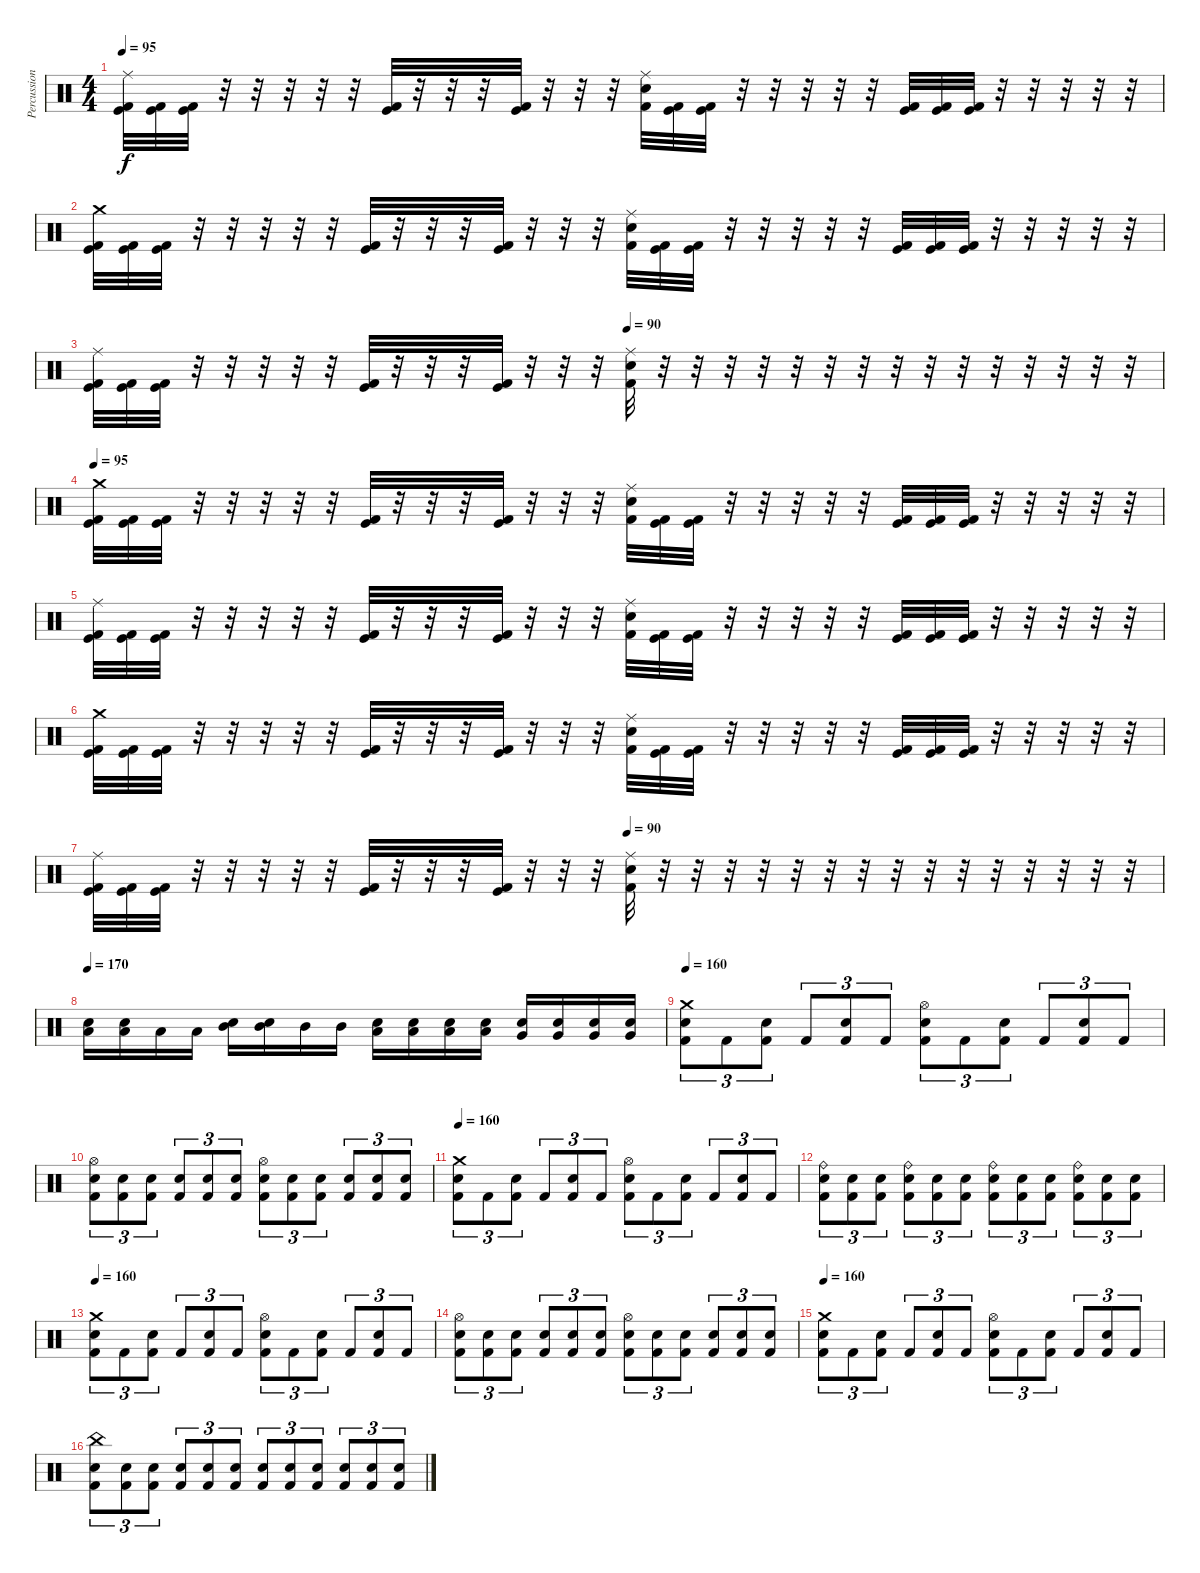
\track ("Percussion" "Percussion") {instrument percussion}
\staff {score}
\articulation defaults
\ts (4 4)
\tempo 95
\clef neutral
\ks c
("Ride (middle)" "Kick (hit)" "Kick (hit) 2").32{dy f} ("Kick (hit)" "Kick (hit) 2").32 ("Kick (hit)" "Kick (hit) 2").32 r.32 r.32 r.32 r.32 r.32 ("Kick (hit)" "Kick (hit) 2").32 r.32 r.32 r.32 ("Kick (hit)" "Kick (hit) 2").32 r.32 r.32 r.32 ("Ride (middle)" "Electric Snare (hit)" "Kick (hit) 2").32 ("Kick (hit)" "Kick (hit) 2").32 ("Kick (hit)" "Kick (hit) 2").32 r.32 r.32 r.32 r.32 r.32 ("Kick (hit)" "Kick (hit) 2").32 ("Kick (hit)" "Kick (hit) 2").32 ("Kick (hit)" "Kick (hit) 2").32 r.32 r.32 r.32 r.32 r.32 |
("Crash medium (hit)" "Kick (hit)" "Kick (hit) 2").32 ("Kick (hit)" "Kick (hit) 2").32 ("Kick (hit)" "Kick (hit) 2").32 r.32 r.32 r.32 r.32 r.32 ("Kick (hit)" "Kick (hit) 2").32 r.32 r.32 r.32 ("Kick (hit)" "Kick (hit) 2").32 r.32 r.32 r.32 ("Ride (middle)" "Electric Snare (hit)" "Kick (hit) 2").32 ("Kick (hit)" "Kick (hit) 2").32 ("Kick (hit)" "Kick (hit) 2").32 r.32 r.32 r.32 r.32 r.32 ("Kick (hit)" "Kick (hit) 2").32 ("Kick (hit)" "Kick (hit) 2").32 ("Kick (hit)" "Kick (hit) 2").32 r.32 r.32 r.32 r.32 r.32 |
\tempo (90 0.5)
("Ride (middle)" "Kick (hit)" "Kick (hit) 2").32 ("Kick (hit)" "Kick (hit) 2").32 ("Kick (hit)" "Kick (hit) 2").32 r.32 r.32 r.32 r.32 r.32 ("Kick (hit)" "Kick (hit) 2").32 r.32 r.32 r.32 ("Kick (hit)" "Kick (hit) 2").32 r.32 r.32 r.32 ("Ride (middle)" "Electric Snare (hit)" "Kick (hit) 2").32 r.32 r.32 r.32 r.32 r.32 r.32 r.32 r.32 r.32 r.32 r.32 r.32 r.32 r.32 r.32 |
\tempo 95
("Crash medium (hit)" "Kick (hit)" "Kick (hit) 2").32 ("Kick (hit)" "Kick (hit) 2").32 ("Kick (hit)" "Kick (hit) 2").32 r.32 r.32 r.32 r.32 r.32 ("Kick (hit)" "Kick (hit) 2").32 r.32 r.32 r.32 ("Kick (hit)" "Kick (hit) 2").32 r.32 r.32 r.32 ("Ride (middle)" "Electric Snare (hit)" "Kick (hit) 2").32 ("Kick (hit)" "Kick (hit) 2").32 ("Kick (hit)" "Kick (hit) 2").32 r.32 r.32 r.32 r.32 r.32 ("Kick (hit)" "Kick (hit) 2").32 ("Kick (hit)" "Kick (hit) 2").32 ("Kick (hit)" "Kick (hit) 2").32 r.32 r.32 r.32 r.32 r.32 |
("Ride (middle)" "Kick (hit)" "Kick (hit) 2").32 ("Kick (hit)" "Kick (hit) 2").32 ("Kick (hit)" "Kick (hit) 2").32 r.32 r.32 r.32 r.32 r.32 ("Kick (hit)" "Kick (hit) 2").32 r.32 r.32 r.32 ("Kick (hit)" "Kick (hit) 2").32 r.32 r.32 r.32 ("Ride (middle)" "Electric Snare (hit)" "Kick (hit) 2").32 ("Kick (hit)" "Kick (hit) 2").32 ("Kick (hit)" "Kick (hit) 2").32 r.32 r.32 r.32 r.32 r.32 ("Kick (hit)" "Kick (hit) 2").32 ("Kick (hit)" "Kick (hit) 2").32 ("Kick (hit)" "Kick (hit) 2").32 r.32 r.32 r.32 r.32 r.32 |
("Crash medium (hit)" "Kick (hit)" "Kick (hit) 2").32 ("Kick (hit)" "Kick (hit) 2").32 ("Kick (hit)" "Kick (hit) 2").32 r.32 r.32 r.32 r.32 r.32 ("Kick (hit)" "Kick (hit) 2").32 r.32 r.32 r.32 ("Kick (hit)" "Kick (hit) 2").32 r.32 r.32 r.32 ("Ride (middle)" "Electric Snare (hit)" "Kick (hit) 2").32 ("Kick (hit)" "Kick (hit) 2").32 ("Kick (hit)" "Kick (hit) 2").32 r.32 r.32 r.32 r.32 r.32 ("Kick (hit)" "Kick (hit) 2").32 ("Kick (hit)" "Kick (hit) 2").32 ("Kick (hit)" "Kick (hit) 2").32 r.32 r.32 r.32 r.32 r.32 |
\tempo (90 0.5)
("Ride (middle)" "Kick (hit)" "Kick (hit) 2").32 ("Kick (hit)" "Kick (hit) 2").32 ("Kick (hit)" "Kick (hit) 2").32 r.32 r.32 r.32 r.32 r.32 ("Kick (hit)" "Kick (hit) 2").32 r.32 r.32 r.32 ("Kick (hit)" "Kick (hit) 2").32 r.32 r.32 r.32 ("Ride (middle)" "Electric Snare (hit)" "Kick (hit) 2").32 r.32 r.32 r.32 r.32 r.32 r.32 r.32 r.32 r.32 r.32 r.32 r.32 r.32 r.32 r.32 |
\tempo 170
("Low Tom (hit)" "Electric Snare (hit)").16 ("Low Tom (hit)" "Electric Snare (hit)").16 "Low Tom (hit)".16 "Low Tom (hit)".16 ("Mid Tom (hit)" "Electric Snare (hit)").16 ("Mid Tom (hit)" "Electric Snare (hit)").16 "Mid Tom (hit)".16 "Mid Tom (hit)".16 ("Low Tom (hit)" "Electric Snare (hit)").16 ("Low Tom (hit)" "Electric Snare (hit)").16 ("Low Tom (hit)" "Electric Snare (hit)").16 ("Low Tom (hit)" "Electric Snare (hit)").16 ("Very Low Tom (hit)" "Electric Snare (hit)").16 ("Very Low Tom (hit)" "Electric Snare (hit)").16 ("Very Low Tom (hit)" "Electric Snare (hit)").16 ("Very Low Tom (hit)" "Electric Snare (hit)").16 |
\tempo 160
("Crash medium (hit)" "Electric Snare (hit)" "Kick (hit) 2").8{tu (3 2)} "Kick (hit) 2".8{tu (3 2)} ("Electric Snare (hit)" "Kick (hit) 2").8{tu (3 2)} "Kick (hit) 2".8{tu (3 2)} ("Electric Snare (hit)" "Kick (hit) 2").8{tu (3 2)} "Kick (hit) 2".8{tu (3 2)} ("Hi-Hat (open)" "Electric Snare (hit)" "Kick (hit) 2").8{tu (3 2)} "Kick (hit) 2".8{tu (3 2)} ("Electric Snare (hit)" "Kick (hit) 2").8{tu (3 2)} "Kick (hit) 2".8{tu (3 2)} ("Electric Snare (hit)" "Kick (hit) 2").8{tu (3 2)} "Kick (hit) 2".8{tu (3 2)} |
("Hi-Hat (open)" "Electric Snare (hit)" "Kick (hit) 2").8{tu (3 2)} ("Electric Snare (hit)" "Kick (hit) 2").8{tu (3 2)} ("Electric Snare (hit)" "Kick (hit) 2").8{tu (3 2)} ("Electric Snare (hit)" "Kick (hit) 2").8{tu (3 2)} ("Electric Snare (hit)" "Kick (hit) 2").8{tu (3 2)} ("Electric Snare (hit)" "Kick (hit) 2").8{tu (3 2)} ("Hi-Hat (open)" "Electric Snare (hit)" "Kick (hit) 2").8{tu (3 2)} ("Electric Snare (hit)" "Kick (hit) 2").8{tu (3 2)} ("Electric Snare (hit)" "Kick (hit) 2").8{tu (3 2)} ("Electric Snare (hit)" "Kick (hit) 2").8{tu (3 2)} ("Electric Snare (hit)" "Kick (hit) 2").8{tu (3 2)} ("Electric Snare (hit)" "Kick (hit) 2").8{tu (3 2)} |
\tempo 160
("Crash medium (hit)" "Electric Snare (hit)" "Kick (hit) 2").8{tu (3 2)} "Kick (hit) 2".8{tu (3 2)} ("Electric Snare (hit)" "Kick (hit) 2").8{tu (3 2)} "Kick (hit) 2".8{tu (3 2)} ("Electric Snare (hit)" "Kick (hit) 2").8{tu (3 2)} "Kick (hit) 2".8{tu (3 2)} ("Hi-Hat (open)" "Electric Snare (hit)" "Kick (hit) 2").8{tu (3 2)} "Kick (hit) 2".8{tu (3 2)} ("Electric Snare (hit)" "Kick (hit) 2").8{tu (3 2)} "Kick (hit) 2".8{tu (3 2)} ("Electric Snare (hit)" "Kick (hit) 2").8{tu (3 2)} "Kick (hit) 2".8{tu (3 2)} |
("Ride (bell)" "Electric Snare (hit)" "Kick (hit) 2").8{tu (3 2)} ("Electric Snare (hit)" "Kick (hit) 2").8{tu (3 2)} ("Electric Snare (hit)" "Kick (hit) 2").8{tu (3 2)} ("Ride (bell)" "Electric Snare (hit)" "Kick (hit) 2").8{tu (3 2)} ("Electric Snare (hit)" "Kick (hit) 2").8{tu (3 2)} ("Electric Snare (hit)" "Kick (hit) 2").8{tu (3 2)} ("Ride (bell)" "Electric Snare (hit)" "Kick (hit) 2").8{tu (3 2)} ("Electric Snare (hit)" "Kick (hit) 2").8{tu (3 2)} ("Electric Snare (hit)" "Kick (hit) 2").8{tu (3 2)} ("Ride (bell)" "Electric Snare (hit)" "Kick (hit) 2").8{tu (3 2)} ("Electric Snare (hit)" "Kick (hit) 2").8{tu (3 2)} ("Electric Snare (hit)" "Kick (hit) 2").8{tu (3 2)} |
\tempo 160
("Crash medium (hit)" "Electric Snare (hit)" "Kick (hit) 2").8{tu (3 2)} "Kick (hit) 2".8{tu (3 2)} ("Electric Snare (hit)" "Kick (hit) 2").8{tu (3 2)} "Kick (hit) 2".8{tu (3 2)} ("Electric Snare (hit)" "Kick (hit) 2").8{tu (3 2)} "Kick (hit) 2".8{tu (3 2)} ("Hi-Hat (open)" "Electric Snare (hit)" "Kick (hit) 2").8{tu (3 2)} "Kick (hit) 2".8{tu (3 2)} ("Electric Snare (hit)" "Kick (hit) 2").8{tu (3 2)} "Kick (hit) 2".8{tu (3 2)} ("Electric Snare (hit)" "Kick (hit) 2").8{tu (3 2)} "Kick (hit) 2".8{tu (3 2)} |
("Hi-Hat (open)" "Electric Snare (hit)" "Kick (hit) 2").8{tu (3 2)} ("Electric Snare (hit)" "Kick (hit) 2").8{tu (3 2)} ("Electric Snare (hit)" "Kick (hit) 2").8{tu (3 2)} ("Electric Snare (hit)" "Kick (hit) 2").8{tu (3 2)} ("Electric Snare (hit)" "Kick (hit) 2").8{tu (3 2)} ("Electric Snare (hit)" "Kick (hit) 2").8{tu (3 2)} ("Hi-Hat (open)" "Electric Snare (hit)" "Kick (hit) 2").8{tu (3 2)} ("Electric Snare (hit)" "Kick (hit) 2").8{tu (3 2)} ("Electric Snare (hit)" "Kick (hit) 2").8{tu (3 2)} ("Electric Snare (hit)" "Kick (hit) 2").8{tu (3 2)} ("Electric Snare (hit)" "Kick (hit) 2").8{tu (3 2)} ("Electric Snare (hit)" "Kick (hit) 2").8{tu (3 2)} |
\tempo 160
("Crash medium (hit)" "Electric Snare (hit)" "Kick (hit) 2").8{tu (3 2)} "Kick (hit) 2".8{tu (3 2)} ("Electric Snare (hit)" "Kick (hit) 2").8{tu (3 2)} "Kick (hit) 2".8{tu (3 2)} ("Electric Snare (hit)" "Kick (hit) 2").8{tu (3 2)} "Kick (hit) 2".8{tu (3 2)} ("Hi-Hat (open)" "Electric Snare (hit)" "Kick (hit) 2").8{tu (3 2)} "Kick (hit) 2".8{tu (3 2)} ("Electric Snare (hit)" "Kick (hit) 2").8{tu (3 2)} "Kick (hit) 2".8{tu (3 2)} ("Electric Snare (hit)" "Kick (hit) 2").8{tu (3 2)} "Kick (hit) 2".8{tu (3 2)} |
("China (hit)" "Electric Snare (hit)" "Kick (hit) 2").8{tu (3 2)} ("Electric Snare (hit)" "Kick (hit) 2").8{tu (3 2)} ("Electric Snare (hit)" "Kick (hit) 2").8{tu (3 2)} ("Electric Snare (hit)" "Kick (hit) 2").8{tu (3 2)} ("Electric Snare (hit)" "Kick (hit) 2").8{tu (3 2)} ("Electric Snare (hit)" "Kick (hit) 2").8{tu (3 2)} ("Electric Snare (hit)" "Kick (hit) 2").8{tu (3 2)} ("Electric Snare (hit)" "Kick (hit) 2").8{tu (3 2)} ("Electric Snare (hit)" "Kick (hit) 2").8{tu (3 2)} ("Electric Snare (hit)" "Kick (hit) 2").8{tu (3 2)} ("Electric Snare (hit)" "Kick (hit) 2").8{tu (3 2)} ("Electric Snare (hit)" "Kick (hit) 2").8{tu (3 2)}
